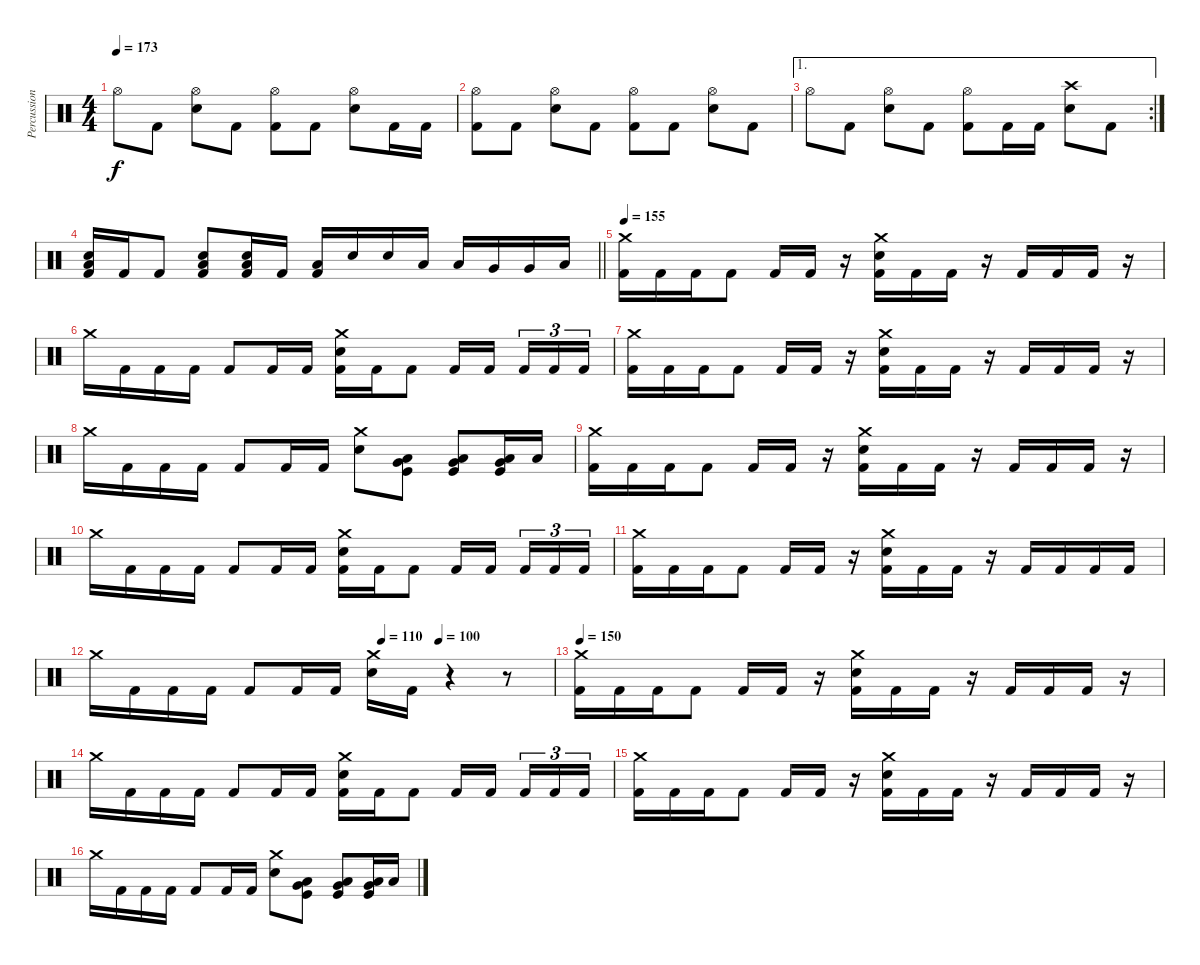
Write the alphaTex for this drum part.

\track ("Percussion" "Percussion") {instrument percussion}
\staff {score}
\articulation defaults
\ts (4 4)
\tempo 173
\clef neutral
\ks c "Hi-Hat (open)".8{dy f} "Kick (hit) 2".8
("Hi-Hat (open)" "Electric Snare (hit)").8 "Kick (hit) 2".8 ("Hi-Hat (open)" "Kick (hit) 2").8 "Kick (hit) 2".8 ("Hi-Hat (open)" "Electric Snare (hit)").8 "Kick (hit) 2".16 "Kick (hit) 2".16 |
("Hi-Hat (open)" "Kick (hit) 2").8 "Kick (hit) 2".8 ("Hi-Hat (open)" "Electric Snare (hit)").8 "Kick (hit) 2".8 ("Hi-Hat (open)" "Kick (hit) 2").8 "Kick (hit) 2".8 ("Hi-Hat (open)" "Electric Snare (hit)").8 "Kick (hit) 2".8 |
\ae 1
\rc 2 "Hi-Hat (open)".8 "Kick (hit) 2".8
("Hi-Hat (open)" "Electric Snare (hit)").8 "Kick (hit) 2".8 ("Hi-Hat (open)" "Kick (hit) 2").8 "Kick (hit) 2".16 "Kick (hit) 2".16 ("Crash high (hit)" "Electric Snare (hit)").8 "Kick (hit) 2".8 |
\barLineRight lightlight
("Electric Snare (hit)" "Low Floor Tom (hit)" "Kick (hit) 2").16 "Kick (hit) 2".16 "Kick (hit) 2".8 ("Electric Snare (hit)" "Low Floor Tom (hit)" "Kick (hit) 2").8 ("Electric Snare (hit)" "Low Floor Tom (hit)" "Kick (hit) 2").16 "Kick (hit) 2".16 ("Low Floor Tom (hit)" "Kick (hit) 2").16 "Electric Snare (hit)".16 "Electric Snare (hit)".16 "Low Tom (hit)".16 "Low Tom (hit)".16 "Very Low Tom (hit)".16 "Very Low Tom (hit)".16 "Low Floor Tom (hit)".16 |
\tempo 155
("Crash medium (hit)" "Kick (hit) 2").16 "Kick (hit) 2".16 "Kick (hit) 2".16 "Kick (hit) 2".8 "Kick (hit) 2".16 "Kick (hit) 2".16 r.16 ("Crash medium (hit)" "Electric Snare (hit)" "Kick (hit) 2").16 "Kick (hit) 2".16 "Kick (hit) 2".16 r.16 "Kick (hit) 2".16 "Kick (hit) 2".16 "Kick (hit) 2".16 r.16 |
"Crash medium (hit)".16 "Kick (hit) 2".16 "Kick (hit) 2".16 "Kick (hit) 2".16 "Kick (hit) 2".8 "Kick (hit) 2".16 "Kick (hit) 2".16 ("Crash medium (hit)" "Electric Snare (hit)" "Kick (hit) 2").16 "Kick (hit) 2".16 "Kick (hit) 2".8 "Kick (hit) 2".16 "Kick (hit) 2".16{beam splitsecondary} "Kick (hit) 2".16{tu (3 2)} "Kick (hit) 2".16{tu (3 2)} "Kick (hit) 2".16{tu (3 2)} |
("Crash medium (hit)" "Kick (hit) 2").16 "Kick (hit) 2".16 "Kick (hit) 2".16 "Kick (hit) 2".8 "Kick (hit) 2".16 "Kick (hit) 2".16 r.16 ("Crash medium (hit)" "Electric Snare (hit)" "Kick (hit) 2").16 "Kick (hit) 2".16 "Kick (hit) 2".16 r.16 "Kick (hit) 2".16 "Kick (hit) 2".16 "Kick (hit) 2".16 r.16 |
"Crash medium (hit)".16 "Kick (hit) 2".16 "Kick (hit) 2".16 "Kick (hit) 2".16 "Kick (hit) 2".8 "Kick (hit) 2".16 "Kick (hit) 2".16 ("Crash medium (hit)" "Electric Snare (hit)").8 ("Low Floor Tom (hit)" "Very Low Tom (hit)" "Kick (hit)").8 ("Low Floor Tom (hit)" "Very Low Tom (hit)" "Kick (hit)").8 ("Low Floor Tom (hit)" "Very Low Tom (hit)" "Kick (hit)").16 "Low Floor Tom (hit)".16 |
("Crash medium (hit)" "Kick (hit) 2").16 "Kick (hit) 2".16 "Kick (hit) 2".16 "Kick (hit) 2".8 "Kick (hit) 2".16 "Kick (hit) 2".16 r.16 ("Crash medium (hit)" "Electric Snare (hit)" "Kick (hit) 2").16 "Kick (hit) 2".16 "Kick (hit) 2".16 r.16 "Kick (hit) 2".16 "Kick (hit) 2".16 "Kick (hit) 2".16 r.16 |
"Crash medium (hit)".16 "Kick (hit) 2".16 "Kick (hit) 2".16 "Kick (hit) 2".16 "Kick (hit) 2".8 "Kick (hit) 2".16 "Kick (hit) 2".16 ("Crash medium (hit)" "Electric Snare (hit)" "Kick (hit) 2").16 "Kick (hit) 2".16 "Kick (hit) 2".8 "Kick (hit) 2".16 "Kick (hit) 2".16{beam splitsecondary} "Kick (hit) 2".16{tu (3 2)} "Kick (hit) 2".16{tu (3 2)} "Kick (hit) 2".16{tu (3 2)} |
("Crash medium (hit)" "Kick (hit) 2").16 "Kick (hit) 2".16 "Kick (hit) 2".16 "Kick (hit) 2".8 "Kick (hit) 2".16 "Kick (hit) 2".16 r.16 ("Crash medium (hit)" "Electric Snare (hit)" "Kick (hit) 2").16 "Kick (hit) 2".16 "Kick (hit) 2".16 r.16 "Kick (hit) 2".16 "Kick (hit) 2".16 "Kick (hit) 2".16 "Kick (hit) 2".16 |
\tempo (110 0.625)
\tempo (100 0.75)
"Crash medium (hit)".16 "Kick (hit) 2".16 "Kick (hit) 2".16 "Kick (hit) 2".16 "Kick (hit) 2".8 "Kick (hit) 2".16 "Kick (hit) 2".16 ("Crash medium (hit)" "Electric Snare (hit)").16 "Kick (hit) 2".16 r.4 r.8 |
\tempo 150
("Crash medium (hit)" "Kick (hit) 2").16 "Kick (hit) 2".16 "Kick (hit) 2".16 "Kick (hit) 2".8 "Kick (hit) 2".16 "Kick (hit) 2".16 r.16 ("Crash medium (hit)" "Electric Snare (hit)" "Kick (hit) 2").16 "Kick (hit) 2".16 "Kick (hit) 2".16 r.16 "Kick (hit) 2".16 "Kick (hit) 2".16 "Kick (hit) 2".16 r.16 |
"Crash medium (hit)".16 "Kick (hit) 2".16 "Kick (hit) 2".16 "Kick (hit) 2".16 "Kick (hit) 2".8 "Kick (hit) 2".16 "Kick (hit) 2".16 ("Crash medium (hit)" "Electric Snare (hit)" "Kick (hit) 2").16 "Kick (hit) 2".16 "Kick (hit) 2".8 "Kick (hit) 2".16 "Kick (hit) 2".16{beam splitsecondary} "Kick (hit) 2".16{tu (3 2)} "Kick (hit) 2".16{tu (3 2)} "Kick (hit) 2".16{tu (3 2)} |
("Crash medium (hit)" "Kick (hit) 2").16 "Kick (hit) 2".16 "Kick (hit) 2".16 "Kick (hit) 2".8 "Kick (hit) 2".16 "Kick (hit) 2".16 r.16 ("Crash medium (hit)" "Electric Snare (hit)" "Kick (hit) 2").16 "Kick (hit) 2".16 "Kick (hit) 2".16 r.16 "Kick (hit) 2".16 "Kick (hit) 2".16 "Kick (hit) 2".16 r.16 |
"Crash medium (hit)".16 "Kick (hit) 2".16 "Kick (hit) 2".16 "Kick (hit) 2".16 "Kick (hit) 2".8 "Kick (hit) 2".16 "Kick (hit) 2".16 ("Crash medium (hit)" "Electric Snare (hit)").8 ("Low Floor Tom (hit)" "Very Low Tom (hit)" "Kick (hit)").8 ("Low Floor Tom (hit)" "Very Low Tom (hit)" "Kick (hit)").8 ("Low Floor Tom (hit)" "Very Low Tom (hit)" "Kick (hit)").16 "Low Floor Tom (hit)".16
